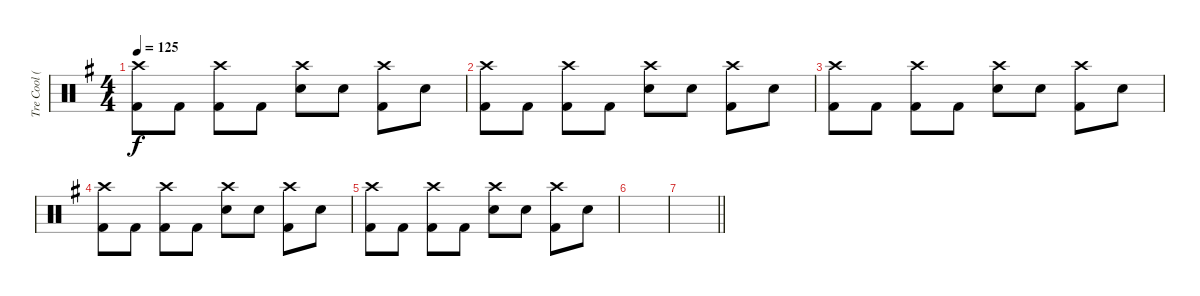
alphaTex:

\track ("Tre Cool (Drums)" "Tre Cool (") {instrument percussion}
\staff {score}
\articulation defaults
\ts (4 4)
\tempo 125
\clef neutral
\ks g
("Crash high (hit)" "Kick (hit) 2").8{dy f} "Kick (hit) 2".8 ("Crash high (hit)" "Kick (hit) 2").8 "Kick (hit) 2".8 ("Crash high (hit)" "Electric Snare (hit)").8 "Electric Snare (hit)".8 ("Crash high (hit)" "Kick (hit) 2").8 "Electric Snare (hit)".8 |
("Crash high (hit)" "Kick (hit) 2").8 "Kick (hit) 2".8 ("Crash high (hit)" "Kick (hit) 2").8 "Kick (hit) 2".8 ("Crash high (hit)" "Electric Snare (hit)").8 "Electric Snare (hit)".8 ("Crash high (hit)" "Kick (hit) 2").8 "Electric Snare (hit)".8 |
("Crash high (hit)" "Kick (hit) 2").8 "Kick (hit) 2".8 ("Crash high (hit)" "Kick (hit) 2").8 "Kick (hit) 2".8 ("Crash high (hit)" "Electric Snare (hit)").8 "Electric Snare (hit)".8 ("Crash high (hit)" "Kick (hit) 2").8 "Electric Snare (hit)".8 |
("Crash high (hit)" "Kick (hit) 2").8 "Kick (hit) 2".8 ("Crash high (hit)" "Kick (hit) 2").8 "Kick (hit) 2".8 ("Crash high (hit)" "Electric Snare (hit)").8 "Electric Snare (hit)".8 ("Crash high (hit)" "Kick (hit) 2").8 "Electric Snare (hit)".8 |
("Crash high (hit)" "Kick (hit) 2").8 "Kick (hit) 2".8 ("Crash high (hit)" "Kick (hit) 2").8 "Kick (hit) 2".8 ("Crash high (hit)" "Electric Snare (hit)").8 "Electric Snare (hit)".8 ("Crash high (hit)" "Kick (hit) 2").8 "Electric Snare (hit)".8 |
|
\barLineRight lightlight
